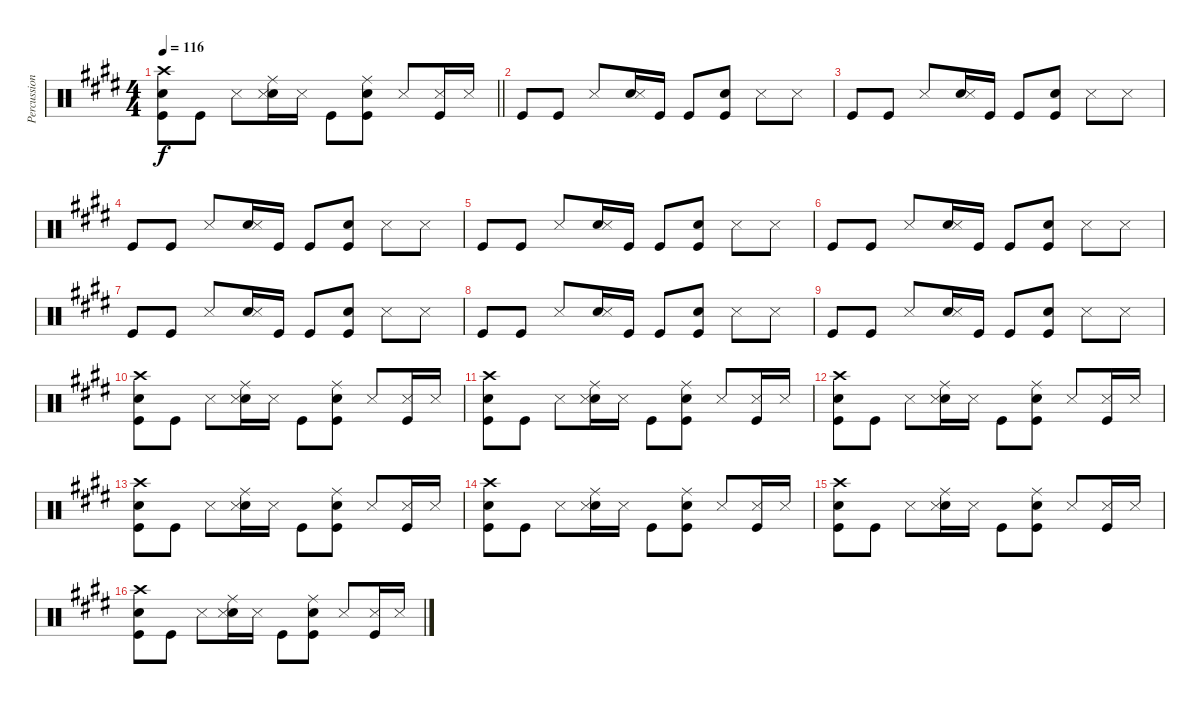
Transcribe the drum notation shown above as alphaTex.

\track ("Percussion" "Percussion") {instrument percussion}
\staff {score}
\articulation defaults
\ts (4 4)
\tempo 116
\clef neutral
\barLineRight lightlight
\ks e
("Crash high (hit)" "Electric Snare (hit)" "Kick (hit)").8{dy f} "Kick (hit)".8 "Snare (side stick) 3".8 ("Ride (middle)" "Electric Snare (hit)" "Snare (side stick) 3").16 "Snare (side stick) 3".16 "Kick (hit)".8 ("Ride (middle)" "Electric Snare (hit)" "Kick (hit)").8 "Snare (side stick) 3".8 ("Snare (side stick) 3" "Kick (hit)").16 "Snare (side stick) 3".16 |
"Kick (hit)".8 "Kick (hit)".8 "Snare (side stick) 3".8 ("Electric Snare (hit)" "Snare (side stick) 3").16 "Kick (hit)".16 "Kick (hit)".8 ("Electric Snare (hit)" "Kick (hit)").8 "Snare (side stick) 3".8 "Snare (side stick) 3".8 |
"Kick (hit)".8 "Kick (hit)".8 "Snare (side stick) 3".8 ("Electric Snare (hit)" "Snare (side stick) 3").16 "Kick (hit)".16 "Kick (hit)".8 ("Electric Snare (hit)" "Kick (hit)").8 "Snare (side stick) 3".8 "Snare (side stick) 3".8 |
"Kick (hit)".8 "Kick (hit)".8 "Snare (side stick) 3".8 ("Electric Snare (hit)" "Snare (side stick) 3").16 "Kick (hit)".16 "Kick (hit)".8 ("Electric Snare (hit)" "Kick (hit)").8 "Snare (side stick) 3".8 "Snare (side stick) 3".8 |
"Kick (hit)".8 "Kick (hit)".8 "Snare (side stick) 3".8 ("Electric Snare (hit)" "Snare (side stick) 3").16 "Kick (hit)".16 "Kick (hit)".8 ("Electric Snare (hit)" "Kick (hit)").8 "Snare (side stick) 3".8 "Snare (side stick) 3".8 |
"Kick (hit)".8 "Kick (hit)".8 "Snare (side stick) 3".8 ("Electric Snare (hit)" "Snare (side stick) 3").16 "Kick (hit)".16 "Kick (hit)".8 ("Electric Snare (hit)" "Kick (hit)").8 "Snare (side stick) 3".8 "Snare (side stick) 3".8 |
"Kick (hit)".8 "Kick (hit)".8 "Snare (side stick) 3".8 ("Electric Snare (hit)" "Snare (side stick) 3").16 "Kick (hit)".16 "Kick (hit)".8 ("Electric Snare (hit)" "Kick (hit)").8 "Snare (side stick) 3".8 "Snare (side stick) 3".8 |
"Kick (hit)".8 "Kick (hit)".8 "Snare (side stick) 3".8 ("Electric Snare (hit)" "Snare (side stick) 3").16 "Kick (hit)".16 "Kick (hit)".8 ("Electric Snare (hit)" "Kick (hit)").8 "Snare (side stick) 3".8 "Snare (side stick) 3".8 |
"Kick (hit)".8 "Kick (hit)".8 "Snare (side stick) 3".8 ("Electric Snare (hit)" "Snare (side stick) 3").16 "Kick (hit)".16 "Kick (hit)".8 ("Electric Snare (hit)" "Kick (hit)").8 "Snare (side stick) 3".8 "Snare (side stick) 3".8 |
("Crash high (hit)" "Electric Snare (hit)" "Kick (hit)").8 "Kick (hit)".8 "Snare (side stick) 3".8 ("Ride (middle)" "Electric Snare (hit)" "Snare (side stick) 3").16 "Snare (side stick) 3".16 "Kick (hit)".8 ("Ride (middle)" "Electric Snare (hit)" "Kick (hit)").8 "Snare (side stick) 3".8 ("Snare (side stick) 3" "Kick (hit)").16 "Snare (side stick) 3".16 |
("Crash high (hit)" "Electric Snare (hit)" "Kick (hit)").8 "Kick (hit)".8 "Snare (side stick) 3".8 ("Ride (middle)" "Electric Snare (hit)" "Snare (side stick) 3").16 "Snare (side stick) 3".16 "Kick (hit)".8 ("Ride (middle)" "Electric Snare (hit)" "Kick (hit)").8 "Snare (side stick) 3".8 ("Snare (side stick) 3" "Kick (hit)").16 "Snare (side stick) 3".16 |
("Crash high (hit)" "Electric Snare (hit)" "Kick (hit)").8 "Kick (hit)".8 "Snare (side stick) 3".8 ("Ride (middle)" "Electric Snare (hit)" "Snare (side stick) 3").16 "Snare (side stick) 3".16 "Kick (hit)".8 ("Ride (middle)" "Electric Snare (hit)" "Kick (hit)").8 "Snare (side stick) 3".8 ("Snare (side stick) 3" "Kick (hit)").16 "Snare (side stick) 3".16 |
("Crash high (hit)" "Electric Snare (hit)" "Kick (hit)").8 "Kick (hit)".8 "Snare (side stick) 3".8 ("Ride (middle)" "Electric Snare (hit)" "Snare (side stick) 3").16 "Snare (side stick) 3".16 "Kick (hit)".8 ("Ride (middle)" "Electric Snare (hit)" "Kick (hit)").8 "Snare (side stick) 3".8 ("Snare (side stick) 3" "Kick (hit)").16 "Snare (side stick) 3".16 |
("Crash high (hit)" "Electric Snare (hit)" "Kick (hit)").8 "Kick (hit)".8 "Snare (side stick) 3".8 ("Ride (middle)" "Electric Snare (hit)" "Snare (side stick) 3").16 "Snare (side stick) 3".16 "Kick (hit)".8 ("Ride (middle)" "Electric Snare (hit)" "Kick (hit)").8 "Snare (side stick) 3".8 ("Snare (side stick) 3" "Kick (hit)").16 "Snare (side stick) 3".16 |
("Crash high (hit)" "Electric Snare (hit)" "Kick (hit)").8 "Kick (hit)".8 "Snare (side stick) 3".8 ("Ride (middle)" "Electric Snare (hit)" "Snare (side stick) 3").16 "Snare (side stick) 3".16 "Kick (hit)".8 ("Ride (middle)" "Electric Snare (hit)" "Kick (hit)").8 "Snare (side stick) 3".8 ("Snare (side stick) 3" "Kick (hit)").16 "Snare (side stick) 3".16 |
("Crash high (hit)" "Electric Snare (hit)" "Kick (hit)").8 "Kick (hit)".8 "Snare (side stick) 3".8 ("Ride (middle)" "Electric Snare (hit)" "Snare (side stick) 3").16 "Snare (side stick) 3".16 "Kick (hit)".8 ("Ride (middle)" "Electric Snare (hit)" "Kick (hit)").8 "Snare (side stick) 3".8 ("Snare (side stick) 3" "Kick (hit)").16 "Snare (side stick) 3".16
